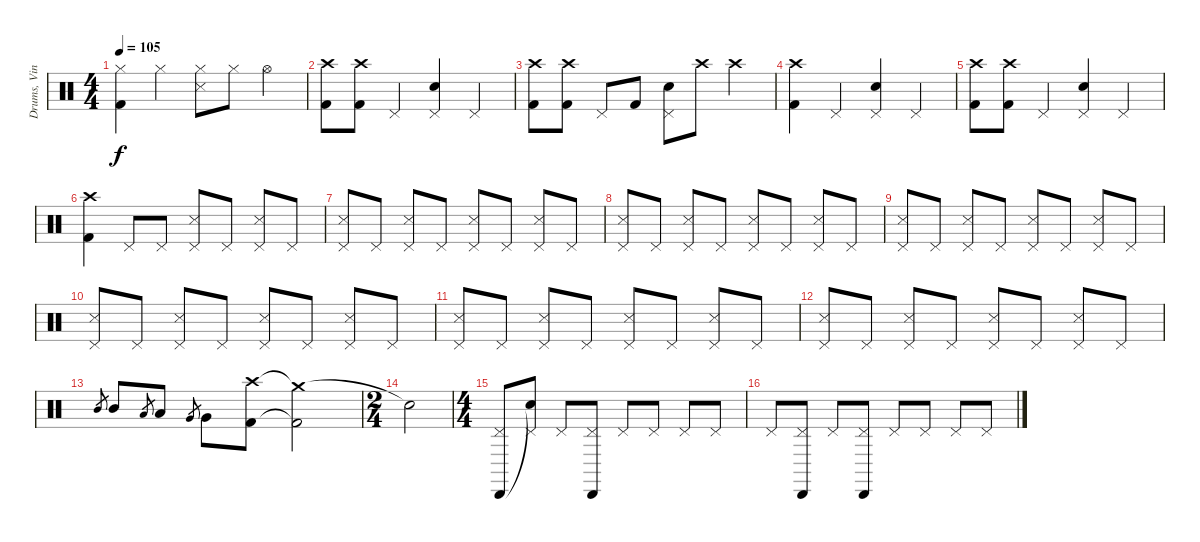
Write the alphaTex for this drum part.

\track ("Drums, Vinnie" "Drums, Vin") {instrument percussion}
\staff {score}
\articulation defaults
\ts (4 4)
\tempo 105
\clef neutral
\ks c
("Hi-Hat (closed)" "Kick (hit) 2").4{dy f} "Hi-Hat (closed)".4 ("Hi-Hat (closed)" "Snare (side stick) 3").8 "Hi-Hat (closed)".8 "Hi-Hat (open)".4 |
("Crash high (hit)" "Kick (hit) 2").8 ("Crash high (hit)" "Kick (hit) 2").8 "Pedal Hi-Hat (hit)".4 ("Pedal Hi-Hat (hit)" "Electric Snare (hit)").4 "Pedal Hi-Hat (hit)".4 |
("Crash high (hit)" "Kick (hit) 2").8 ("Crash high (hit)" "Kick (hit) 2").8 "Pedal Hi-Hat (hit)".8 "Kick (hit) 2".8 ("Pedal Hi-Hat (hit)" "Electric Snare (hit)").8 "Crash high (hit)".8 "Crash high (hit)".4 |
("Crash high (hit)" "Kick (hit) 2").4 "Pedal Hi-Hat (hit)".4 ("Pedal Hi-Hat (hit)" "Electric Snare (hit)").4 "Pedal Hi-Hat (hit)".4 |
("Crash high (hit)" "Kick (hit) 2").8 ("Crash high (hit)" "Kick (hit) 2").8 "Pedal Hi-Hat (hit)".4 ("Pedal Hi-Hat (hit)" "Electric Snare (hit)").4 "Pedal Hi-Hat (hit)".4 |
("Crash high (hit)" "Kick (hit) 2").4 "Pedal Hi-Hat (hit)".8 "Pedal Hi-Hat (hit)".8 ("Pedal Hi-Hat (hit)" "Snare (side stick) 3").8 "Pedal Hi-Hat (hit)".8 ("Pedal Hi-Hat (hit)" "Snare (side stick) 3").8 "Pedal Hi-Hat (hit)".8 |
("Pedal Hi-Hat (hit)" "Snare (side stick) 3").8 "Pedal Hi-Hat (hit)".8 ("Pedal Hi-Hat (hit)" "Snare (side stick) 3").8 "Pedal Hi-Hat (hit)".8 ("Pedal Hi-Hat (hit)" "Snare (side stick) 3").8 "Pedal Hi-Hat (hit)".8 ("Pedal Hi-Hat (hit)" "Snare (side stick) 3").8 "Pedal Hi-Hat (hit)".8 |
("Pedal Hi-Hat (hit)" "Snare (side stick) 3").8 "Pedal Hi-Hat (hit)".8 ("Pedal Hi-Hat (hit)" "Snare (side stick) 3").8 "Pedal Hi-Hat (hit)".8 ("Pedal Hi-Hat (hit)" "Snare (side stick) 3").8 "Pedal Hi-Hat (hit)".8 ("Pedal Hi-Hat (hit)" "Snare (side stick) 3").8 "Pedal Hi-Hat (hit)".8 |
("Pedal Hi-Hat (hit)" "Snare (side stick) 3").8 "Pedal Hi-Hat (hit)".8 ("Pedal Hi-Hat (hit)" "Snare (side stick) 3").8 "Pedal Hi-Hat (hit)".8 ("Pedal Hi-Hat (hit)" "Snare (side stick) 3").8 "Pedal Hi-Hat (hit)".8 ("Pedal Hi-Hat (hit)" "Snare (side stick) 3").8 "Pedal Hi-Hat (hit)".8 |
("Pedal Hi-Hat (hit)" "Snare (side stick) 3").8 "Pedal Hi-Hat (hit)".8 ("Pedal Hi-Hat (hit)" "Snare (side stick) 3").8 "Pedal Hi-Hat (hit)".8 ("Pedal Hi-Hat (hit)" "Snare (side stick) 3").8 "Pedal Hi-Hat (hit)".8 ("Pedal Hi-Hat (hit)" "Snare (side stick) 3").8 "Pedal Hi-Hat (hit)".8 |
("Pedal Hi-Hat (hit)" "Snare (side stick) 3").8 "Pedal Hi-Hat (hit)".8 ("Pedal Hi-Hat (hit)" "Snare (side stick) 3").8 "Pedal Hi-Hat (hit)".8 ("Pedal Hi-Hat (hit)" "Snare (side stick) 3").8 "Pedal Hi-Hat (hit)".8 ("Pedal Hi-Hat (hit)" "Snare (side stick) 3").8 "Pedal Hi-Hat (hit)".8 |
("Pedal Hi-Hat (hit)" "Snare (side stick) 3").8 "Pedal Hi-Hat (hit)".8 ("Pedal Hi-Hat (hit)" "Snare (side stick) 3").8 "Pedal Hi-Hat (hit)".8 ("Pedal Hi-Hat (hit)" "Snare (side stick) 3").8 "Pedal Hi-Hat (hit)".8 ("Pedal Hi-Hat (hit)" "Snare (side stick) 3").8 "Pedal Hi-Hat (hit)".8 |
"Mid Tom (hit)".8{gr} "Mid Tom (hit)".8 "Low Tom (hit)".8{gr} "Low Tom (hit)".8 "Very Low Tom (hit)".8{gr} "Very Low Tom (hit)".8 ("Crash high (hit)" "Kick (hit) 2").8 ("Crash medium (hit)"{t} "Kick (hit) 2"{t}).2 |
\ts (2 4)
"Snare (hit)"{t}.2 |
\ts (4 4)
("Pedal Hi-Hat (hit)" "Cabasa (hit)").8 ("Pedal Hi-Hat (hit)" "Snare (hit)"{t}).8 "Pedal Hi-Hat (hit)".8 ("Pedal Hi-Hat (hit)" "Cabasa (hit)").8 "Pedal Hi-Hat (hit)".8 "Pedal Hi-Hat (hit)".8 "Pedal Hi-Hat (hit)".8 "Pedal Hi-Hat (hit)".8 |
"Pedal Hi-Hat (hit)".8 ("Pedal Hi-Hat (hit)" "Cabasa (hit)").8 "Pedal Hi-Hat (hit)".8 ("Pedal Hi-Hat (hit)" "Cabasa (hit)").8 "Pedal Hi-Hat (hit)".8 "Pedal Hi-Hat (hit)".8 "Pedal Hi-Hat (hit)".8 "Pedal Hi-Hat (hit)".8
